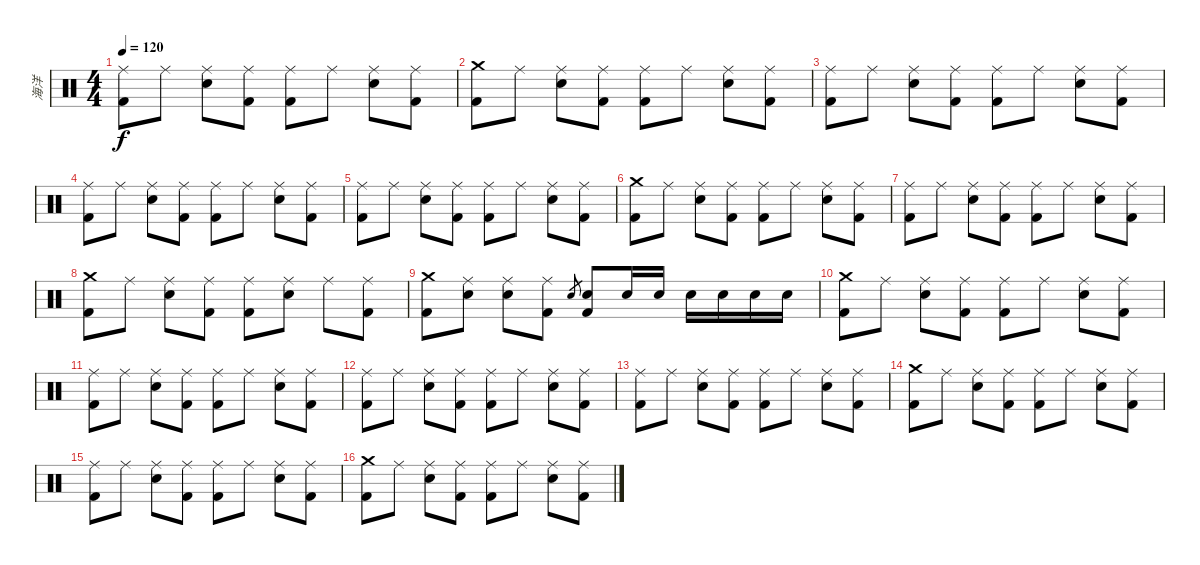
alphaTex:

\track ("海洋" "海洋") {instrument percussion}
\staff {score}
\articulation defaults
\ts (4 4)
\tempo 120
\clef neutral
\ks c
("Ride (middle)" "Kick (hit) 2").8{dy f} "Ride (middle)".8 ("Ride (middle)" "Electric Snare (hit)").8 ("Ride (middle)" "Kick (hit) 2").8 ("Ride (middle)" "Kick (hit) 2").8 "Ride (middle)".8 ("Ride (middle)" "Electric Snare (hit)").8 ("Ride (middle)" "Kick (hit) 2").8 |
("Crash medium (hit)" "Kick (hit) 2").8 "Ride (middle)".8 ("Ride (middle)" "Electric Snare (hit)").8 ("Ride (middle)" "Kick (hit) 2").8 ("Ride (middle)" "Kick (hit) 2").8 "Ride (middle)".8 ("Ride (middle)" "Electric Snare (hit)").8 ("Ride (middle)" "Kick (hit) 2").8 |
("Ride (middle)" "Kick (hit) 2").8 "Ride (middle)".8 ("Ride (middle)" "Electric Snare (hit)").8 ("Ride (middle)" "Kick (hit) 2").8 ("Ride (middle)" "Kick (hit) 2").8 "Ride (middle)".8 ("Ride (middle)" "Electric Snare (hit)").8 ("Ride (middle)" "Kick (hit) 2").8 |
("Ride (middle)" "Kick (hit) 2").8 "Ride (middle)".8 ("Ride (middle)" "Electric Snare (hit)").8 ("Ride (middle)" "Kick (hit) 2").8 ("Ride (middle)" "Kick (hit) 2").8 "Ride (middle)".8 ("Ride (middle)" "Electric Snare (hit)").8 ("Ride (middle)" "Kick (hit) 2").8 |
("Ride (middle)" "Kick (hit) 2").8 "Ride (middle)".8 ("Ride (middle)" "Electric Snare (hit)").8 ("Ride (middle)" "Kick (hit) 2").8 ("Ride (middle)" "Kick (hit) 2").8 "Ride (middle)".8 ("Ride (middle)" "Electric Snare (hit)").8 ("Ride (middle)" "Kick (hit) 2").8 |
("Crash medium (hit)" "Kick (hit) 2").8 "Ride (middle)".8 ("Ride (middle)" "Electric Snare (hit)").8 ("Ride (middle)" "Kick (hit) 2").8 ("Ride (middle)" "Kick (hit) 2").8 "Ride (middle)".8 ("Ride (middle)" "Electric Snare (hit)").8 ("Ride (middle)" "Kick (hit) 2").8 |
("Ride (middle)" "Kick (hit) 2").8 "Ride (middle)".8 ("Ride (middle)" "Electric Snare (hit)").8 ("Ride (middle)" "Kick (hit) 2").8 ("Ride (middle)" "Kick (hit) 2").8 "Ride (middle)".8 ("Ride (middle)" "Electric Snare (hit)").8 ("Ride (middle)" "Kick (hit) 2").8 |
("Crash medium (hit)" "Kick (hit) 2").8 "Ride (middle)".8 ("Ride (middle)" "Electric Snare (hit)").8 ("Ride (middle)" "Kick (hit) 2").8 ("Ride (middle)" "Kick (hit) 2").8 ("Ride (middle)" "Electric Snare (hit)").8 "Ride (middle)".8 ("Ride (middle)" "Kick (hit) 2").8 |
("Crash medium (hit)" "Kick (hit) 2").8 ("Ride (middle)" "Electric Snare (hit)").8 ("Ride (middle)" "Electric Snare (hit)").8 ("Ride (middle)" "Kick (hit) 2").8 "Electric Snare (hit)".8{gr} ("Electric Snare (hit)" "Kick (hit) 2").8 "Electric Snare (hit)".16 "Electric Snare (hit)".16 "Electric Snare (hit)".16 "Electric Snare (hit)".16 "Electric Snare (hit)".16 "Electric Snare (hit)".16 |
("Crash medium (hit)" "Kick (hit) 2").8 "Ride (middle)".8 ("Ride (middle)" "Electric Snare (hit)").8 ("Ride (middle)" "Kick (hit) 2").8 ("Ride (middle)" "Kick (hit) 2").8 "Ride (middle)".8 ("Ride (middle)" "Electric Snare (hit)").8 ("Ride (middle)" "Kick (hit) 2").8 |
("Ride (middle)" "Kick (hit) 2").8 "Ride (middle)".8 ("Ride (middle)" "Electric Snare (hit)").8 ("Ride (middle)" "Kick (hit) 2").8 ("Ride (middle)" "Kick (hit) 2").8 "Ride (middle)".8 ("Ride (middle)" "Electric Snare (hit)").8 ("Ride (middle)" "Kick (hit) 2").8 |
("Ride (middle)" "Kick (hit) 2").8 "Ride (middle)".8 ("Ride (middle)" "Electric Snare (hit)").8 ("Ride (middle)" "Kick (hit) 2").8 ("Ride (middle)" "Kick (hit) 2").8 "Ride (middle)".8 ("Ride (middle)" "Electric Snare (hit)").8 ("Ride (middle)" "Kick (hit) 2").8 |
("Ride (middle)" "Kick (hit) 2").8 "Ride (middle)".8 ("Ride (middle)" "Electric Snare (hit)").8 ("Ride (middle)" "Kick (hit) 2").8 ("Ride (middle)" "Kick (hit) 2").8 "Ride (middle)".8 ("Ride (middle)" "Electric Snare (hit)").8 ("Ride (middle)" "Kick (hit) 2").8 |
("Crash medium (hit)" "Kick (hit) 2").8 "Ride (middle)".8 ("Ride (middle)" "Electric Snare (hit)").8 ("Ride (middle)" "Kick (hit) 2").8 ("Ride (middle)" "Kick (hit) 2").8 "Ride (middle)".8 ("Ride (middle)" "Electric Snare (hit)").8 ("Ride (middle)" "Kick (hit) 2").8 |
("Ride (middle)" "Kick (hit) 2").8 "Ride (middle)".8 ("Ride (middle)" "Electric Snare (hit)").8 ("Ride (middle)" "Kick (hit) 2").8 ("Ride (middle)" "Kick (hit) 2").8 "Ride (middle)".8 ("Ride (middle)" "Electric Snare (hit)").8 ("Ride (middle)" "Kick (hit) 2").8 |
("Crash medium (hit)" "Kick (hit) 2").8 "Ride (middle)".8 ("Ride (middle)" "Electric Snare (hit)").8 ("Ride (middle)" "Kick (hit) 2").8 ("Ride (middle)" "Kick (hit) 2").8 "Ride (middle)".8 ("Ride (middle)" "Electric Snare (hit)").8 ("Ride (middle)" "Kick (hit) 2").8
